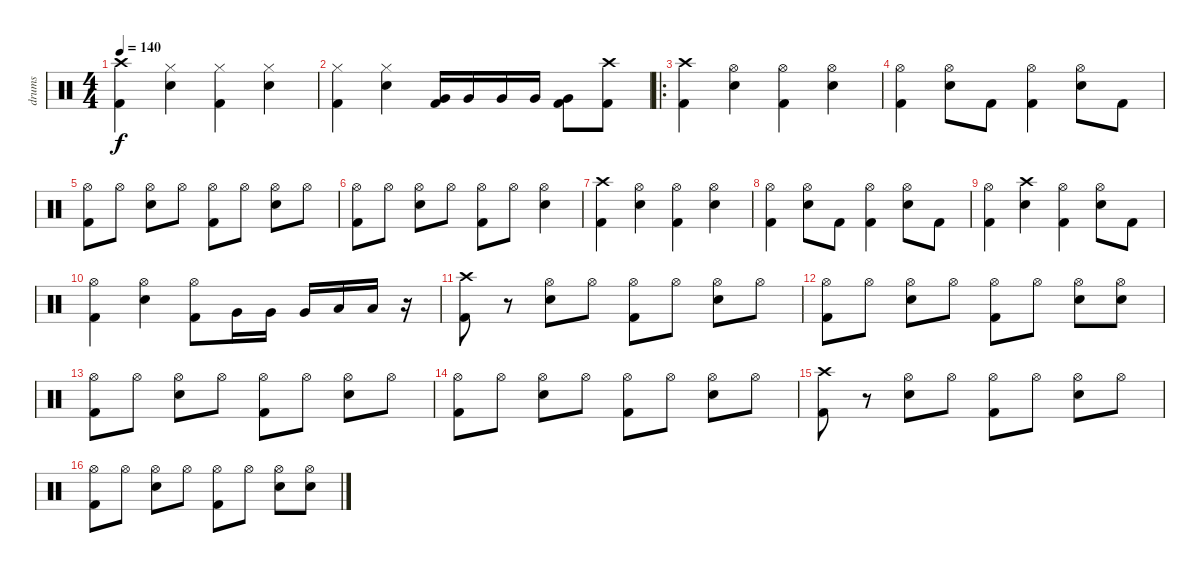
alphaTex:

\track ("drums" "drums") {instrument percussion}
\staff {score}
\articulation defaults
\ts (4 4)
\tempo 140
\clef neutral
\ks c
("Crash high (hit)" "Kick (hit) 2").4{dy f} ("Hi-Hat (closed)" "Electric Snare (hit)").4 ("Hi-Hat (closed)" "Kick (hit) 2").4 ("Hi-Hat (closed)" "Electric Snare (hit)").4 |
("Hi-Hat (closed)" "Kick (hit) 2").4 ("Hi-Hat (closed)" "Electric Snare (hit)").4 ("Very Low Tom (hit)" "Kick (hit) 2").16 "Very Low Tom (hit)".16 "Very Low Tom (hit)".16 "Very Low Tom (hit)".16 ("Very Low Tom (hit)" "Kick (hit) 2").8 ("Crash high (hit)" "Kick (hit) 2").8 |
\ro
("Crash high (hit)" "Kick (hit) 2").4 ("Hi-Hat (open)" "Electric Snare (hit)").4 ("Hi-Hat (open)" "Kick (hit) 2").4 ("Hi-Hat (open)" "Electric Snare (hit)").4 |
("Hi-Hat (open)" "Kick (hit) 2").4 ("Hi-Hat (open)" "Electric Snare (hit)").8 "Kick (hit) 2".8 ("Hi-Hat (open)" "Kick (hit) 2").4 ("Hi-Hat (open)" "Electric Snare (hit)").8 "Kick (hit) 2".8 |
("Hi-Hat (open)" "Kick (hit) 2").8 "Hi-Hat (open)".8 ("Hi-Hat (open)" "Electric Snare (hit)").8 "Hi-Hat (open)".8 ("Hi-Hat (open)" "Kick (hit) 2").8 "Hi-Hat (open)".8 ("Hi-Hat (open)" "Electric Snare (hit)").8 "Hi-Hat (open)".8 |
("Hi-Hat (open)" "Kick (hit) 2").8 "Hi-Hat (open)".8 ("Hi-Hat (open)" "Electric Snare (hit)").8 "Hi-Hat (open)".8 ("Hi-Hat (open)" "Kick (hit) 2").8 "Hi-Hat (open)".8 ("Hi-Hat (open)" "Electric Snare (hit)").4 |
("Crash high (hit)" "Kick (hit) 2").4 ("Hi-Hat (open)" "Electric Snare (hit)").4 ("Hi-Hat (open)" "Kick (hit) 2").4 ("Hi-Hat (open)" "Electric Snare (hit)").4 |
("Hi-Hat (open)" "Kick (hit) 2").4 ("Hi-Hat (open)" "Electric Snare (hit)").8 "Kick (hit) 2".8 ("Hi-Hat (open)" "Kick (hit) 2").4 ("Hi-Hat (open)" "Electric Snare (hit)").8 "Kick (hit) 2".8 |
("Hi-Hat (open)" "Kick (hit) 2").4 ("Crash high (hit)" "Electric Snare (hit)").4 ("Hi-Hat (open)" "Kick (hit) 2").4 ("Hi-Hat (open)" "Electric Snare (hit)").8 "Kick (hit) 2".8 |
("Hi-Hat (open)" "Kick (hit) 2").4 ("Hi-Hat (open)" "Electric Snare (hit)").4 ("Hi-Hat (open)" "Kick (hit) 2").8 "Very Low Tom (hit)".16 "Very Low Tom (hit)".16 "Very Low Tom (hit)".16 "Low Floor Tom (hit)".16 "Low Floor Tom (hit)".16 r.16 |
("Crash high (hit)" "Kick (hit) 2").8 r.8 ("Hi-Hat (open)" "Electric Snare (hit)").8 "Hi-Hat (open)".8 ("Hi-Hat (open)" "Kick (hit) 2").8 "Hi-Hat (open)".8 ("Hi-Hat (open)" "Electric Snare (hit)").8 "Hi-Hat (open)".8 |
("Hi-Hat (open)" "Kick (hit) 2").8 "Hi-Hat (open)".8 ("Hi-Hat (open)" "Electric Snare (hit)").8 "Hi-Hat (open)".8 ("Hi-Hat (open)" "Kick (hit) 2").8 "Hi-Hat (open)".8 ("Hi-Hat (open)" "Electric Snare (hit)").8 ("Hi-Hat (open)" "Electric Snare (hit)").8 |
("Hi-Hat (open)" "Kick (hit) 2").8 "Hi-Hat (open)".8 ("Hi-Hat (open)" "Electric Snare (hit)").8 "Hi-Hat (open)".8 ("Hi-Hat (open)" "Kick (hit) 2").8 "Hi-Hat (open)".8 ("Hi-Hat (open)" "Electric Snare (hit)").8 "Hi-Hat (open)".8 |
("Hi-Hat (open)" "Kick (hit) 2").8 "Hi-Hat (open)".8 ("Hi-Hat (open)" "Electric Snare (hit)").8 "Hi-Hat (open)".8 ("Hi-Hat (open)" "Kick (hit) 2").8 "Hi-Hat (open)".8 ("Hi-Hat (open)" "Electric Snare (hit)").8 "Hi-Hat (open)".8 |
("Crash high (hit)" "Kick (hit) 2").8 r.8 ("Hi-Hat (open)" "Electric Snare (hit)").8 "Hi-Hat (open)".8 ("Hi-Hat (open)" "Kick (hit) 2").8 "Hi-Hat (open)".8 ("Hi-Hat (open)" "Electric Snare (hit)").8 "Hi-Hat (open)".8 |
("Hi-Hat (open)" "Kick (hit) 2").8 "Hi-Hat (open)".8 ("Hi-Hat (open)" "Electric Snare (hit)").8 "Hi-Hat (open)".8 ("Hi-Hat (open)" "Kick (hit) 2").8 "Hi-Hat (open)".8 ("Hi-Hat (open)" "Electric Snare (hit)").8 ("Hi-Hat (open)" "Electric Snare (hit)").8
